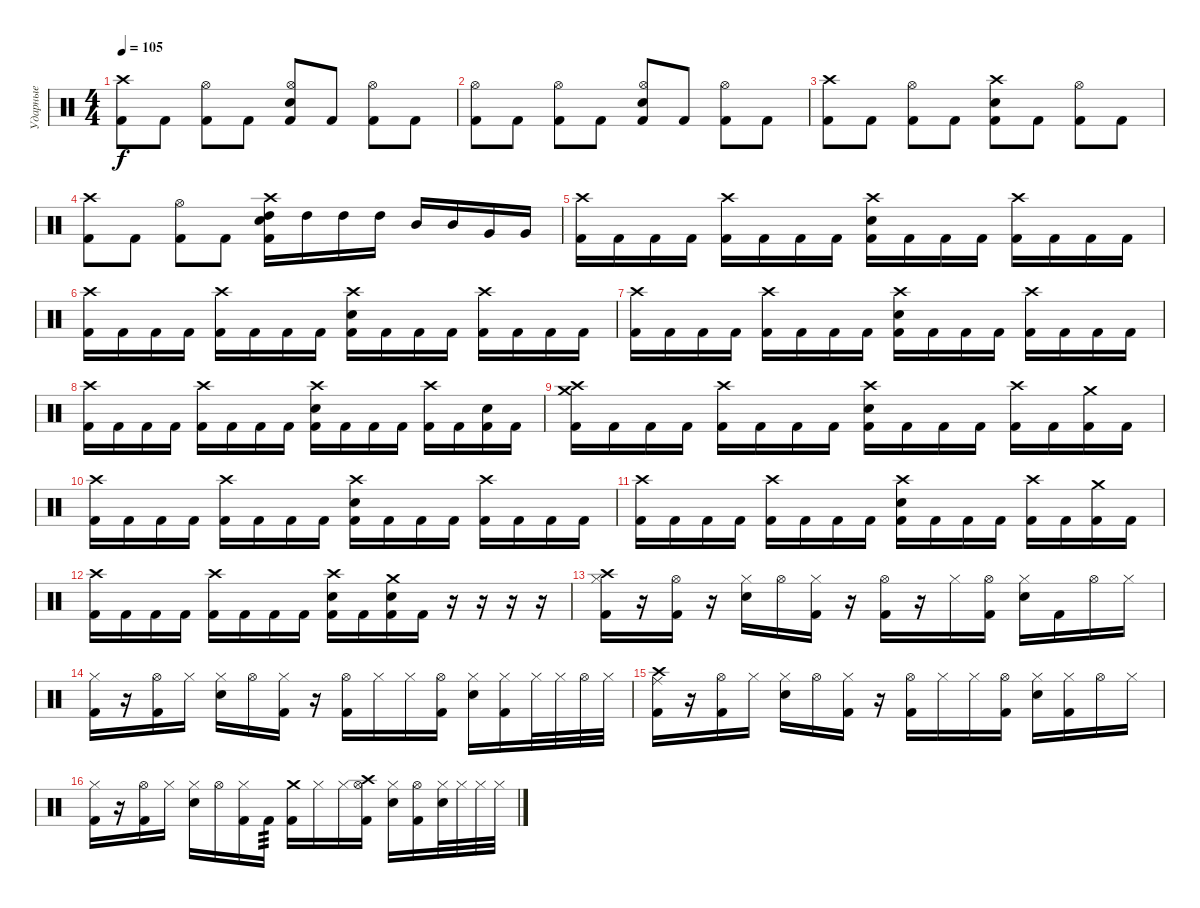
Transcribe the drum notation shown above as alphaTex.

\track ("Ударные" "Ударные") {instrument percussion}
\staff
\articulation defaults
\ts (4 4)
\tempo 105
\clef neutral
\ks c
("Crash high (hit)" "Kick (hit) 2").8{dy f} "Kick (hit) 2".8 ("Hi-Hat (open)" "Kick (hit) 2").8 "Kick (hit) 2".8 ("Hi-Hat (open)" "Electric Snare (hit)" "Kick (hit) 2").8 "Kick (hit) 2".8 ("Hi-Hat (open)" "Kick (hit) 2").8 "Kick (hit) 2".8 |
("Hi-Hat (open)" "Kick (hit) 2").8 "Kick (hit) 2".8 ("Hi-Hat (open)" "Kick (hit) 2").8 "Kick (hit) 2".8 ("Hi-Hat (open)" "Electric Snare (hit)" "Kick (hit) 2").8 "Kick (hit) 2".8 ("Hi-Hat (open)" "Kick (hit) 2").8 "Kick (hit) 2".8 |
("Crash high (hit)" "Kick (hit) 2").8 "Kick (hit) 2".8 ("Hi-Hat (open)" "Kick (hit) 2").8 "Kick (hit) 2".8 ("Crash high (hit)" "Electric Snare (hit)" "Kick (hit) 2").8 "Kick (hit) 2".8 ("Hi-Hat (open)" "Kick (hit) 2").8 "Kick (hit) 2".8 |
("Crash high (hit)" "Kick (hit) 2").8 "Kick (hit) 2".8 ("Hi-Hat (open)" "Kick (hit) 2").8 "Kick (hit) 2".8 ("Crash high (hit)" "High Tom (hit)" "Electric Snare (hit)" "Kick (hit) 2").16 "High Tom (hit)".16 "High Tom (hit)".16 "High Tom (hit)".16 "Mid Tom (hit)".16 "Mid Tom (hit)".16 "Very Low Tom (hit)".16 "Very Low Tom (hit)".16 |
("Crash high (hit)" "Kick (hit) 2").16 "Kick (hit) 2".16 "Kick (hit) 2".16 "Kick (hit) 2".16 ("Crash high (hit)" "Kick (hit) 2").16 "Kick (hit) 2".16 "Kick (hit) 2".16 "Kick (hit) 2".16 ("Crash high (hit)" "Electric Snare (hit)" "Kick (hit) 2").16 "Kick (hit) 2".16 "Kick (hit) 2".16 "Kick (hit) 2".16 ("Crash high (hit)" "Kick (hit) 2").16 "Kick (hit) 2".16 "Kick (hit) 2".16 "Kick (hit) 2".16 |
("Crash high (hit)" "Kick (hit) 2").16 "Kick (hit) 2".16 "Kick (hit) 2".16 "Kick (hit) 2".16 ("Crash high (hit)" "Kick (hit) 2").16 "Kick (hit) 2".16 "Kick (hit) 2".16 "Kick (hit) 2".16 ("Crash high (hit)" "Electric Snare (hit)" "Kick (hit) 2").16 "Kick (hit) 2".16 "Kick (hit) 2".16 "Kick (hit) 2".16 ("Crash high (hit)" "Kick (hit) 2").16 "Kick (hit) 2".16 "Kick (hit) 2".16 "Kick (hit) 2".16 |
("Crash high (hit)" "Kick (hit) 2").16 "Kick (hit) 2".16 "Kick (hit) 2".16 "Kick (hit) 2".16 ("Crash high (hit)" "Kick (hit) 2").16 "Kick (hit) 2".16 "Kick (hit) 2".16 "Kick (hit) 2".16 ("Crash high (hit)" "Electric Snare (hit)" "Kick (hit) 2").16 "Kick (hit) 2".16 "Kick (hit) 2".16 "Kick (hit) 2".16 ("Crash high (hit)" "Kick (hit) 2").16 "Kick (hit) 2".16 "Kick (hit) 2".16 "Kick (hit) 2".16 |
("Crash high (hit)" "Kick (hit) 2").16 "Kick (hit) 2".16 "Kick (hit) 2".16 "Kick (hit) 2".16 ("Crash high (hit)" "Kick (hit) 2").16 "Kick (hit) 2".16 "Kick (hit) 2".16 "Kick (hit) 2".16 ("Crash high (hit)" "Electric Snare (hit)" "Kick (hit) 2").16 "Kick (hit) 2".16 "Kick (hit) 2".16 "Kick (hit) 2".16 ("Crash high (hit)" "Kick (hit) 2").16 "Kick (hit) 2".16 ("Electric Snare (hit)" "Kick (hit) 2").16 "Kick (hit) 2".16 |
("Crash high (hit)" "Crash medium (hit)" "Kick (hit) 2").16 "Kick (hit) 2".16 "Kick (hit) 2".16 "Kick (hit) 2".16 ("Crash high (hit)" "Kick (hit) 2").16 "Kick (hit) 2".16 "Kick (hit) 2".16 "Kick (hit) 2".16 ("Crash high (hit)" "Electric Snare (hit)" "Kick (hit) 2").16 "Kick (hit) 2".16 "Kick (hit) 2".16 "Kick (hit) 2".16 ("Crash high (hit)" "Kick (hit) 2").16 "Kick (hit) 2".16 ("Crash medium (hit)" "Kick (hit) 2").16 "Kick (hit) 2".16 |
("Crash high (hit)" "Kick (hit) 2").16 "Kick (hit) 2".16 "Kick (hit) 2".16 "Kick (hit) 2".16 ("Crash high (hit)" "Kick (hit) 2").16 "Kick (hit) 2".16 "Kick (hit) 2".16 "Kick (hit) 2".16 ("Crash high (hit)" "Electric Snare (hit)" "Kick (hit) 2").16 "Kick (hit) 2".16 "Kick (hit) 2".16 "Kick (hit) 2".16 ("Crash high (hit)" "Kick (hit) 2").16 "Kick (hit) 2".16 "Kick (hit) 2".16 "Kick (hit) 2".16 |
("Crash high (hit)" "Kick (hit) 2").16 "Kick (hit) 2".16 "Kick (hit) 2".16 "Kick (hit) 2".16 ("Crash high (hit)" "Kick (hit) 2").16 "Kick (hit) 2".16 "Kick (hit) 2".16 "Kick (hit) 2".16 ("Crash high (hit)" "Electric Snare (hit)" "Kick (hit) 2").16 "Kick (hit) 2".16 "Kick (hit) 2".16 "Kick (hit) 2".16 ("Crash high (hit)" "Kick (hit) 2").16 "Kick (hit) 2".16 ("Crash medium (hit)" "Kick (hit) 2").16 "Kick (hit) 2".16 |
("Crash high (hit)" "Kick (hit) 2").16 "Kick (hit) 2".16 "Kick (hit) 2".16 "Kick (hit) 2".16 ("Crash high (hit)" "Kick (hit) 2").16 "Kick (hit) 2".16 "Kick (hit) 2".16 "Kick (hit) 2".16 ("Crash high (hit)" "Electric Snare (hit)" "Kick (hit) 2").16 "Kick (hit) 2".16 ("Crash medium (hit)" "Electric Snare (hit)" "Kick (hit) 2").16 "Kick (hit) 2".16 r.16 r.16 r.16 r.16 |
("Crash high (hit)" "Hi-Hat (closed)" "Kick (hit) 2").16 r.16 ("Hi-Hat (open)" "Kick (hit) 2").16 r.16 ("Hi-Hat (closed)" "Electric Snare (hit)").16 "Hi-Hat (open)".16 ("Hi-Hat (closed)" "Kick (hit) 2").16 r.16 ("Hi-Hat (open)" "Kick (hit) 2").16 r.16 "Hi-Hat (closed)".16 ("Hi-Hat (open)" "Kick (hit) 2").16 ("Hi-Hat (closed)" "Electric Snare (hit)").16 "Kick (hit) 2".16 "Hi-Hat (open)".16 "Hi-Hat (closed)".16 |
("Hi-Hat (closed)" "Kick (hit) 2").16 r.16 ("Hi-Hat (open)" "Kick (hit) 2").16 "Hi-Hat (closed)".16 ("Hi-Hat (closed)" "Electric Snare (hit)").16 "Hi-Hat (open)".16 ("Hi-Hat (closed)" "Kick (hit) 2").16 r.16 ("Hi-Hat (open)" "Kick (hit) 2").16 "Hi-Hat (closed)".16 "Hi-Hat (closed)".16 ("Hi-Hat (open)" "Kick (hit) 2").16 ("Hi-Hat (closed)" "Electric Snare (hit)").16 ("Hi-Hat (closed)" "Kick (hit) 2").16 "Hi-Hat (closed)".32 "Hi-Hat (closed)".32 "Hi-Hat (open)".32 "Hi-Hat (closed)".32 |
("Crash high (hit)" "Ride (middle)" "Kick (hit) 2").16 r.16 ("Hi-Hat (open)" "Kick (hit) 2").16 "Hi-Hat (closed)".16 ("Hi-Hat (closed)" "Electric Snare (hit)").16 "Hi-Hat (open)".16 ("Hi-Hat (closed)" "Kick (hit) 2").16 r.16 ("Hi-Hat (open)" "Kick (hit) 2").16 "Hi-Hat (closed)".16 "Hi-Hat (closed)".16 ("Hi-Hat (open)" "Kick (hit) 2").16 ("Hi-Hat (closed)" "Electric Snare (hit)").16 ("Hi-Hat (closed)" "Kick (hit) 2").16 "Hi-Hat (open)".16 "Hi-Hat (closed)".16 |
("Hi-Hat (closed)" "Kick (hit) 2").16 r.16 ("Hi-Hat (open)" "Kick (hit) 2").16 "Hi-Hat (closed)".16 ("Hi-Hat (closed)" "Electric Snare (hit)").16 "Hi-Hat (open)".16 ("Hi-Hat (closed)" "Kick (hit) 2").16 "Kick (hit) 2".16{tp 3} ("Crash medium (hit)" "Kick (hit) 2").16 "Hi-Hat (closed)".16 "Hi-Hat (closed)".16 ("Hi-Hat (open)" "Crash high (hit)" "Kick (hit) 2").16 ("Hi-Hat (closed)" "Electric Snare (hit)").16 ("Hi-Hat (open)" "Kick (hit) 2").16 ("Hi-Hat (closed)" "Electric Snare (hit)").32 "Hi-Hat (closed)".32 "Hi-Hat (closed)".32 "Hi-Hat (closed)".32
